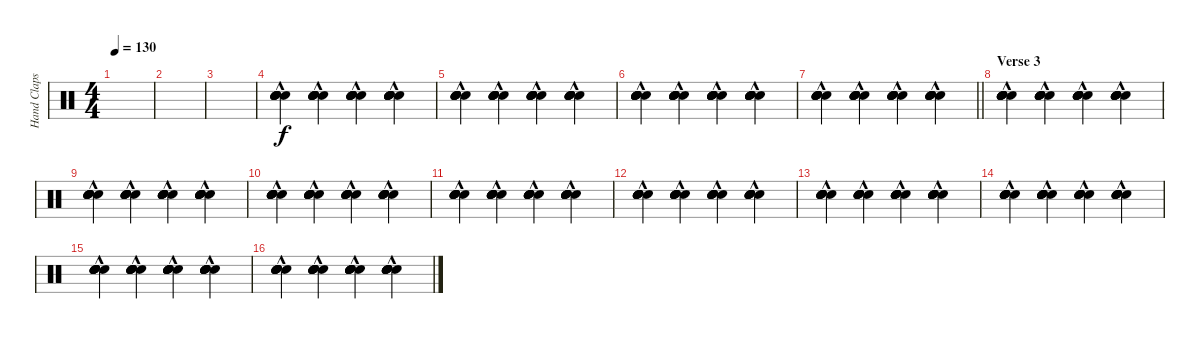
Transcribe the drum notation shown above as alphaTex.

\track ("Hand Claps" "Hand Claps") {instrument percussion}
\staff {score}
\articulation defaults
\ts (4 4)
\tempo 130
\clef neutral
\ks c
|
|
|
("Hand Clap (hit)"{hac} "Hand Clap (hit)"{hac} "Hand Clap (hit)"{hac} "Hand Clap (hit)"{hac} "Hand Clap (hit)"{hac} "Hand Clap (hit)"{hac}).4 ("Hand Clap (hit)"{hac} "Hand Clap (hit)"{hac} "Hand Clap (hit)"{hac} "Hand Clap (hit)"{hac} "Hand Clap (hit)"{hac} "Hand Clap (hit)"{hac}).4 ("Hand Clap (hit)"{hac} "Hand Clap (hit)"{hac} "Hand Clap (hit)"{hac} "Hand Clap (hit)"{hac} "Hand Clap (hit)"{hac} "Hand Clap (hit)"{hac}).4 ("Hand Clap (hit)"{hac} "Hand Clap (hit)"{hac} "Hand Clap (hit)"{hac} "Hand Clap (hit)"{hac} "Hand Clap (hit)"{hac} "Hand Clap (hit)"{hac}).4 |
("Hand Clap (hit)"{hac} "Hand Clap (hit)"{hac} "Hand Clap (hit)"{hac} "Hand Clap (hit)"{hac} "Hand Clap (hit)"{hac} "Hand Clap (hit)"{hac}).4 ("Hand Clap (hit)"{hac} "Hand Clap (hit)"{hac} "Hand Clap (hit)"{hac} "Hand Clap (hit)"{hac} "Hand Clap (hit)"{hac} "Hand Clap (hit)"{hac}).4 ("Hand Clap (hit)"{hac} "Hand Clap (hit)"{hac} "Hand Clap (hit)"{hac} "Hand Clap (hit)"{hac} "Hand Clap (hit)"{hac} "Hand Clap (hit)"{hac}).4 ("Hand Clap (hit)"{hac} "Hand Clap (hit)"{hac} "Hand Clap (hit)"{hac} "Hand Clap (hit)"{hac} "Hand Clap (hit)"{hac} "Hand Clap (hit)"{hac}).4 |
("Hand Clap (hit)"{hac} "Hand Clap (hit)"{hac} "Hand Clap (hit)"{hac} "Hand Clap (hit)"{hac} "Hand Clap (hit)"{hac} "Hand Clap (hit)"{hac}).4 ("Hand Clap (hit)"{hac} "Hand Clap (hit)"{hac} "Hand Clap (hit)"{hac} "Hand Clap (hit)"{hac} "Hand Clap (hit)"{hac} "Hand Clap (hit)"{hac}).4 ("Hand Clap (hit)"{hac} "Hand Clap (hit)"{hac} "Hand Clap (hit)"{hac} "Hand Clap (hit)"{hac} "Hand Clap (hit)"{hac} "Hand Clap (hit)"{hac}).4 ("Hand Clap (hit)"{hac} "Hand Clap (hit)"{hac} "Hand Clap (hit)"{hac} "Hand Clap (hit)"{hac} "Hand Clap (hit)"{hac} "Hand Clap (hit)"{hac}).4 |
\barLineRight lightlight
("Hand Clap (hit)"{hac} "Hand Clap (hit)"{hac} "Hand Clap (hit)"{hac} "Hand Clap (hit)"{hac} "Hand Clap (hit)"{hac} "Hand Clap (hit)"{hac}).4 ("Hand Clap (hit)"{hac} "Hand Clap (hit)"{hac} "Hand Clap (hit)"{hac} "Hand Clap (hit)"{hac} "Hand Clap (hit)"{hac} "Hand Clap (hit)"{hac}).4 ("Hand Clap (hit)"{hac} "Hand Clap (hit)"{hac} "Hand Clap (hit)"{hac} "Hand Clap (hit)"{hac} "Hand Clap (hit)"{hac} "Hand Clap (hit)"{hac}).4 ("Hand Clap (hit)"{hac} "Hand Clap (hit)"{hac} "Hand Clap (hit)"{hac} "Hand Clap (hit)"{hac} "Hand Clap (hit)"{hac} "Hand Clap (hit)"{hac}).4 |
\section ("" "Verse 3")
("Hand Clap (hit)"{hac} "Hand Clap (hit)"{hac} "Hand Clap (hit)"{hac} "Hand Clap (hit)"{hac} "Hand Clap (hit)"{hac} "Hand Clap (hit)"{hac}).4 ("Hand Clap (hit)"{hac} "Hand Clap (hit)"{hac} "Hand Clap (hit)"{hac} "Hand Clap (hit)"{hac} "Hand Clap (hit)"{hac} "Hand Clap (hit)"{hac}).4 ("Hand Clap (hit)"{hac} "Hand Clap (hit)"{hac} "Hand Clap (hit)"{hac} "Hand Clap (hit)"{hac} "Hand Clap (hit)"{hac} "Hand Clap (hit)"{hac}).4 ("Hand Clap (hit)"{hac} "Hand Clap (hit)"{hac} "Hand Clap (hit)"{hac} "Hand Clap (hit)"{hac} "Hand Clap (hit)"{hac} "Hand Clap (hit)"{hac}).4 |
("Hand Clap (hit)"{hac} "Hand Clap (hit)"{hac} "Hand Clap (hit)"{hac} "Hand Clap (hit)"{hac} "Hand Clap (hit)"{hac} "Hand Clap (hit)"{hac}).4 ("Hand Clap (hit)"{hac} "Hand Clap (hit)"{hac} "Hand Clap (hit)"{hac} "Hand Clap (hit)"{hac} "Hand Clap (hit)"{hac} "Hand Clap (hit)"{hac}).4 ("Hand Clap (hit)"{hac} "Hand Clap (hit)"{hac} "Hand Clap (hit)"{hac} "Hand Clap (hit)"{hac} "Hand Clap (hit)"{hac} "Hand Clap (hit)"{hac}).4 ("Hand Clap (hit)"{hac} "Hand Clap (hit)"{hac} "Hand Clap (hit)"{hac} "Hand Clap (hit)"{hac} "Hand Clap (hit)"{hac} "Hand Clap (hit)"{hac}).4 |
("Hand Clap (hit)"{hac} "Hand Clap (hit)"{hac} "Hand Clap (hit)"{hac} "Hand Clap (hit)"{hac} "Hand Clap (hit)"{hac} "Hand Clap (hit)"{hac}).4 ("Hand Clap (hit)"{hac} "Hand Clap (hit)"{hac} "Hand Clap (hit)"{hac} "Hand Clap (hit)"{hac} "Hand Clap (hit)"{hac} "Hand Clap (hit)"{hac}).4 ("Hand Clap (hit)"{hac} "Hand Clap (hit)"{hac} "Hand Clap (hit)"{hac} "Hand Clap (hit)"{hac} "Hand Clap (hit)"{hac} "Hand Clap (hit)"{hac}).4 ("Hand Clap (hit)"{hac} "Hand Clap (hit)"{hac} "Hand Clap (hit)"{hac} "Hand Clap (hit)"{hac} "Hand Clap (hit)"{hac} "Hand Clap (hit)"{hac}).4 |
("Hand Clap (hit)"{hac} "Hand Clap (hit)"{hac} "Hand Clap (hit)"{hac} "Hand Clap (hit)"{hac} "Hand Clap (hit)"{hac} "Hand Clap (hit)"{hac}).4 ("Hand Clap (hit)"{hac} "Hand Clap (hit)"{hac} "Hand Clap (hit)"{hac} "Hand Clap (hit)"{hac} "Hand Clap (hit)"{hac} "Hand Clap (hit)"{hac}).4 ("Hand Clap (hit)"{hac} "Hand Clap (hit)"{hac} "Hand Clap (hit)"{hac} "Hand Clap (hit)"{hac} "Hand Clap (hit)"{hac} "Hand Clap (hit)"{hac}).4 ("Hand Clap (hit)"{hac} "Hand Clap (hit)"{hac} "Hand Clap (hit)"{hac} "Hand Clap (hit)"{hac} "Hand Clap (hit)"{hac} "Hand Clap (hit)"{hac}).4 |
("Hand Clap (hit)"{hac} "Hand Clap (hit)"{hac} "Hand Clap (hit)"{hac} "Hand Clap (hit)"{hac} "Hand Clap (hit)"{hac} "Hand Clap (hit)"{hac}).4 ("Hand Clap (hit)"{hac} "Hand Clap (hit)"{hac} "Hand Clap (hit)"{hac} "Hand Clap (hit)"{hac} "Hand Clap (hit)"{hac} "Hand Clap (hit)"{hac}).4 ("Hand Clap (hit)"{hac} "Hand Clap (hit)"{hac} "Hand Clap (hit)"{hac} "Hand Clap (hit)"{hac} "Hand Clap (hit)"{hac} "Hand Clap (hit)"{hac}).4 ("Hand Clap (hit)"{hac} "Hand Clap (hit)"{hac} "Hand Clap (hit)"{hac} "Hand Clap (hit)"{hac} "Hand Clap (hit)"{hac} "Hand Clap (hit)"{hac}).4 |
("Hand Clap (hit)"{hac} "Hand Clap (hit)"{hac} "Hand Clap (hit)"{hac} "Hand Clap (hit)"{hac} "Hand Clap (hit)"{hac} "Hand Clap (hit)"{hac}).4 ("Hand Clap (hit)"{hac} "Hand Clap (hit)"{hac} "Hand Clap (hit)"{hac} "Hand Clap (hit)"{hac} "Hand Clap (hit)"{hac} "Hand Clap (hit)"{hac}).4 ("Hand Clap (hit)"{hac} "Hand Clap (hit)"{hac} "Hand Clap (hit)"{hac} "Hand Clap (hit)"{hac} "Hand Clap (hit)"{hac} "Hand Clap (hit)"{hac}).4 ("Hand Clap (hit)"{hac} "Hand Clap (hit)"{hac} "Hand Clap (hit)"{hac} "Hand Clap (hit)"{hac} "Hand Clap (hit)"{hac} "Hand Clap (hit)"{hac}).4 |
("Hand Clap (hit)"{hac} "Hand Clap (hit)"{hac} "Hand Clap (hit)"{hac} "Hand Clap (hit)"{hac} "Hand Clap (hit)"{hac} "Hand Clap (hit)"{hac}).4 ("Hand Clap (hit)"{hac} "Hand Clap (hit)"{hac} "Hand Clap (hit)"{hac} "Hand Clap (hit)"{hac} "Hand Clap (hit)"{hac} "Hand Clap (hit)"{hac}).4 ("Hand Clap (hit)"{hac} "Hand Clap (hit)"{hac} "Hand Clap (hit)"{hac} "Hand Clap (hit)"{hac} "Hand Clap (hit)"{hac} "Hand Clap (hit)"{hac}).4 ("Hand Clap (hit)"{hac} "Hand Clap (hit)"{hac} "Hand Clap (hit)"{hac} "Hand Clap (hit)"{hac} "Hand Clap (hit)"{hac} "Hand Clap (hit)"{hac}).4 |
("Hand Clap (hit)"{hac} "Hand Clap (hit)"{hac} "Hand Clap (hit)"{hac} "Hand Clap (hit)"{hac} "Hand Clap (hit)"{hac} "Hand Clap (hit)"{hac}).4 ("Hand Clap (hit)"{hac} "Hand Clap (hit)"{hac} "Hand Clap (hit)"{hac} "Hand Clap (hit)"{hac} "Hand Clap (hit)"{hac} "Hand Clap (hit)"{hac}).4 ("Hand Clap (hit)"{hac} "Hand Clap (hit)"{hac} "Hand Clap (hit)"{hac} "Hand Clap (hit)"{hac} "Hand Clap (hit)"{hac} "Hand Clap (hit)"{hac}).4 ("Hand Clap (hit)"{hac} "Hand Clap (hit)"{hac} "Hand Clap (hit)"{hac} "Hand Clap (hit)"{hac} "Hand Clap (hit)"{hac} "Hand Clap (hit)"{hac}).4 |
("Hand Clap (hit)"{hac} "Hand Clap (hit)"{hac} "Hand Clap (hit)"{hac} "Hand Clap (hit)"{hac} "Hand Clap (hit)"{hac} "Hand Clap (hit)"{hac}).4 ("Hand Clap (hit)"{hac} "Hand Clap (hit)"{hac} "Hand Clap (hit)"{hac} "Hand Clap (hit)"{hac} "Hand Clap (hit)"{hac} "Hand Clap (hit)"{hac}).4 ("Hand Clap (hit)"{hac} "Hand Clap (hit)"{hac} "Hand Clap (hit)"{hac} "Hand Clap (hit)"{hac} "Hand Clap (hit)"{hac} "Hand Clap (hit)"{hac}).4 ("Hand Clap (hit)"{hac} "Hand Clap (hit)"{hac} "Hand Clap (hit)"{hac} "Hand Clap (hit)"{hac} "Hand Clap (hit)"{hac} "Hand Clap (hit)"{hac}).4
